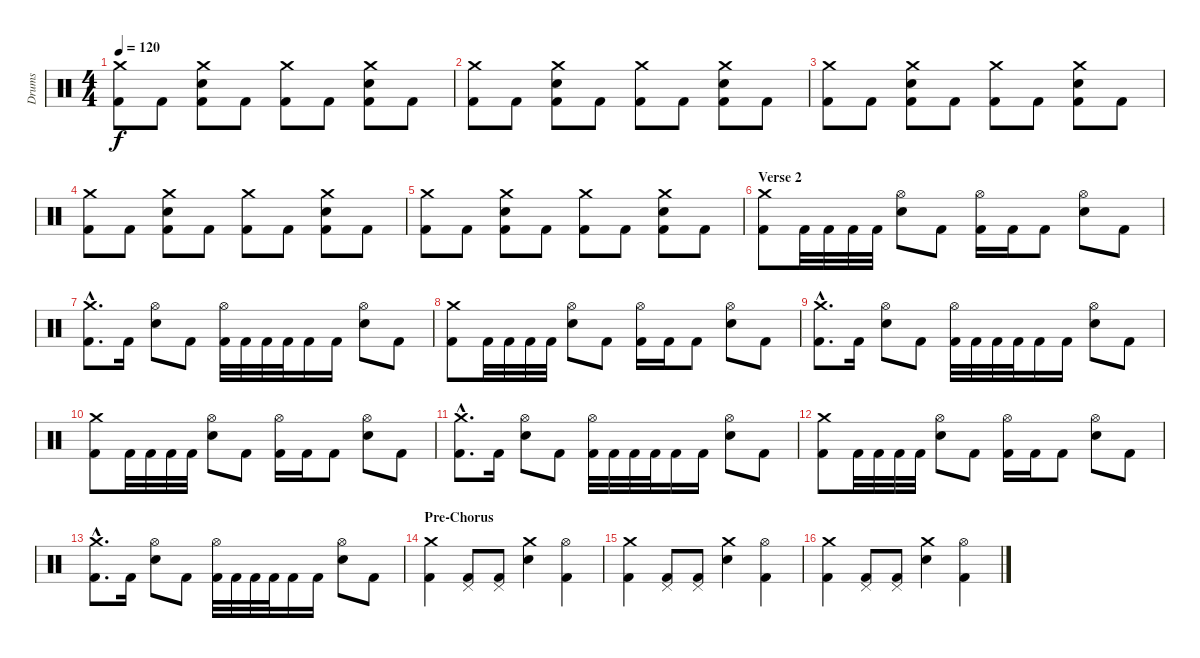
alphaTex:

\track ("Drums" "Drums") {instrument percussion}
\staff {score}
\articulation defaults
\ts (4 4)
\tempo 120
\clef neutral
\ks c
("Crash medium (hit)" "Kick (hit) 2").8{dy f} "Kick (hit) 2".8 ("Crash medium (hit)" "Electric Snare (hit)" "Kick (hit) 2").8 "Kick (hit) 2".8 ("Crash medium (hit)" "Kick (hit) 2").8 "Kick (hit) 2".8 ("Crash medium (hit)" "Electric Snare (hit)" "Kick (hit) 2").8 "Kick (hit) 2".8 |
("Crash medium (hit)" "Kick (hit) 2").8 "Kick (hit) 2".8 ("Crash medium (hit)" "Electric Snare (hit)" "Kick (hit) 2").8 "Kick (hit) 2".8 ("Crash medium (hit)" "Kick (hit) 2").8 "Kick (hit) 2".8 ("Crash medium (hit)" "Electric Snare (hit)" "Kick (hit) 2").8 "Kick (hit) 2".8 |
("Crash medium (hit)" "Kick (hit) 2").8 "Kick (hit) 2".8 ("Crash medium (hit)" "Electric Snare (hit)" "Kick (hit) 2").8 "Kick (hit) 2".8 ("Crash medium (hit)" "Kick (hit) 2").8 "Kick (hit) 2".8 ("Crash medium (hit)" "Electric Snare (hit)" "Kick (hit) 2").8 "Kick (hit) 2".8 |
("Crash medium (hit)" "Kick (hit) 2").8 "Kick (hit) 2".8 ("Crash medium (hit)" "Electric Snare (hit)" "Kick (hit) 2").8 "Kick (hit) 2".8 ("Crash medium (hit)" "Kick (hit) 2").8 "Kick (hit) 2".8 ("Crash medium (hit)" "Electric Snare (hit)" "Kick (hit) 2").8 "Kick (hit) 2".8 |
("Crash medium (hit)" "Kick (hit) 2").8 "Kick (hit) 2".8 ("Crash medium (hit)" "Electric Snare (hit)" "Kick (hit) 2").8 "Kick (hit) 2".8 ("Crash medium (hit)" "Kick (hit) 2").8 "Kick (hit) 2".8 ("Crash medium (hit)" "Electric Snare (hit)" "Kick (hit) 2").8 "Kick (hit) 2".8 |
\section ("" "Verse 2")
("Crash medium (hit)" "Kick (hit) 2").8 "Kick (hit) 2".32 "Kick (hit) 2".32 "Kick (hit) 2".32 "Kick (hit) 2".32 ("Hi-Hat (open)" "Electric Snare (hit)").8 "Kick (hit) 2".8 ("Hi-Hat (open)" "Kick (hit) 2").16 "Kick (hit) 2".16 "Kick (hit) 2".8 ("Hi-Hat (open)" "Electric Snare (hit)").8 "Kick (hit) 2".8 |
("Crash medium (hit)"{hac} "Kick (hit) 2"{hac}).8{d} "Kick (hit) 2".16 ("Hi-Hat (open)" "Electric Snare (hit)").8 "Kick (hit) 2".8 ("Hi-Hat (open)" "Kick (hit) 2").32 "Kick (hit) 2".32 "Kick (hit) 2".32 "Kick (hit) 2".32 "Kick (hit) 2".16 "Kick (hit) 2".16 ("Hi-Hat (open)" "Electric Snare (hit)").8 "Kick (hit) 2".8 |
("Crash medium (hit)" "Kick (hit) 2").8 "Kick (hit) 2".32 "Kick (hit) 2".32 "Kick (hit) 2".32 "Kick (hit) 2".32 ("Hi-Hat (open)" "Electric Snare (hit)").8 "Kick (hit) 2".8 ("Hi-Hat (open)" "Kick (hit) 2").16 "Kick (hit) 2".16 "Kick (hit) 2".8 ("Hi-Hat (open)" "Electric Snare (hit)").8 "Kick (hit) 2".8 |
("Crash medium (hit)"{hac} "Kick (hit) 2"{hac}).8{d} "Kick (hit) 2".16 ("Hi-Hat (open)" "Electric Snare (hit)").8 "Kick (hit) 2".8 ("Hi-Hat (open)" "Kick (hit) 2").32 "Kick (hit) 2".32 "Kick (hit) 2".32 "Kick (hit) 2".32 "Kick (hit) 2".16 "Kick (hit) 2".16 ("Hi-Hat (open)" "Electric Snare (hit)").8 "Kick (hit) 2".8 |
("Crash medium (hit)" "Kick (hit) 2").8 "Kick (hit) 2".32 "Kick (hit) 2".32 "Kick (hit) 2".32 "Kick (hit) 2".32 ("Hi-Hat (open)" "Electric Snare (hit)").8 "Kick (hit) 2".8 ("Hi-Hat (open)" "Kick (hit) 2").16 "Kick (hit) 2".16 "Kick (hit) 2".8 ("Hi-Hat (open)" "Electric Snare (hit)").8 "Kick (hit) 2".8 |
("Crash medium (hit)"{hac} "Kick (hit) 2"{hac}).8{d} "Kick (hit) 2".16 ("Hi-Hat (open)" "Electric Snare (hit)").8 "Kick (hit) 2".8 ("Hi-Hat (open)" "Kick (hit) 2").32 "Kick (hit) 2".32 "Kick (hit) 2".32 "Kick (hit) 2".32 "Kick (hit) 2".16 "Kick (hit) 2".16 ("Hi-Hat (open)" "Electric Snare (hit)").8 "Kick (hit) 2".8 |
("Crash medium (hit)" "Kick (hit) 2").8 "Kick (hit) 2".32 "Kick (hit) 2".32 "Kick (hit) 2".32 "Kick (hit) 2".32 ("Hi-Hat (open)" "Electric Snare (hit)").8 "Kick (hit) 2".8 ("Hi-Hat (open)" "Kick (hit) 2").16 "Kick (hit) 2".16 "Kick (hit) 2".8 ("Hi-Hat (open)" "Electric Snare (hit)").8 "Kick (hit) 2".8 |
("Crash medium (hit)"{hac} "Kick (hit) 2"{hac}).8{d} "Kick (hit) 2".16 ("Hi-Hat (open)" "Electric Snare (hit)").8 "Kick (hit) 2".8 ("Hi-Hat (open)" "Kick (hit) 2").32 "Kick (hit) 2".32 "Kick (hit) 2".32 "Kick (hit) 2".32 "Kick (hit) 2".16 "Kick (hit) 2".16 ("Hi-Hat (open)" "Electric Snare (hit)").8 "Kick (hit) 2".8 |
\section ("" "Pre-Chorus")
("Crash medium (hit)" "Kick (hit) 2").4 ("Pedal Hi-Hat (hit)" "Kick (hit) 2").8 ("Pedal Hi-Hat (hit)" "Kick (hit) 2").8 ("Crash medium (hit)" "Electric Snare (hit)").4 ("Hi-Hat (open)" "Kick (hit) 2").4 |
("Crash medium (hit)" "Kick (hit) 2").4 ("Pedal Hi-Hat (hit)" "Kick (hit) 2").8 ("Pedal Hi-Hat (hit)" "Kick (hit) 2").8 ("Crash medium (hit)" "Electric Snare (hit)").4 ("Hi-Hat (open)" "Kick (hit) 2").4 |
("Crash medium (hit)" "Kick (hit) 2").4 ("Pedal Hi-Hat (hit)" "Kick (hit) 2").8 ("Pedal Hi-Hat (hit)" "Kick (hit) 2").8 ("Crash medium (hit)" "Electric Snare (hit)").4 ("Hi-Hat (open)" "Kick (hit) 2").4
